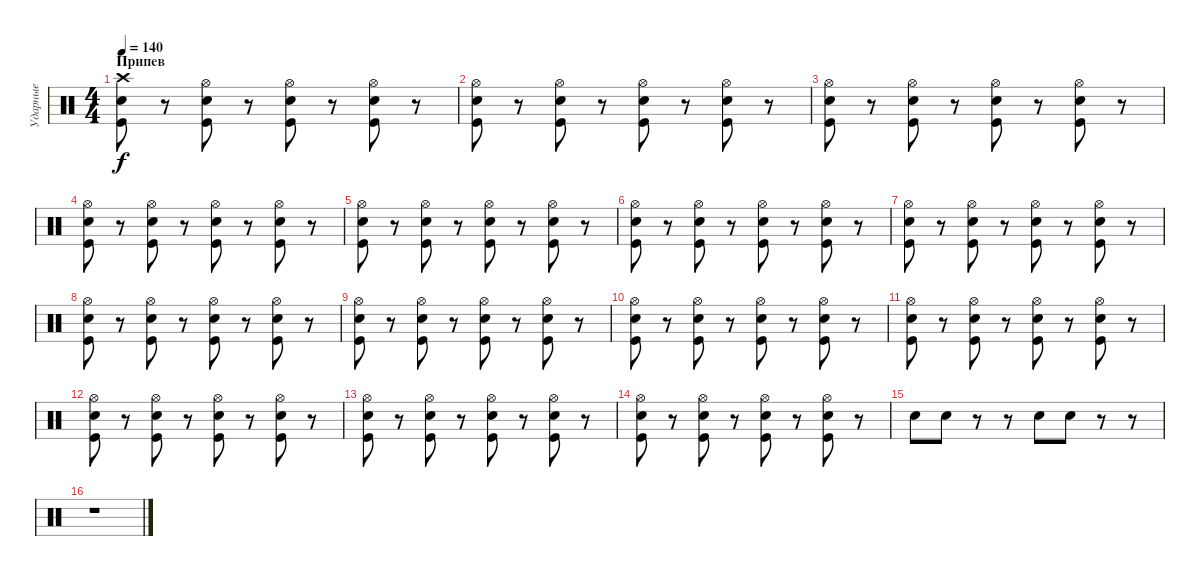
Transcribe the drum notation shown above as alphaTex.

\track ("Ударные" "Ударные") {instrument percussion}
\staff {score}
\articulation defaults
\ts (4 4)
\section ("" "Припев")
\tempo 140
\clef neutral
\ks c
("Crash high (hit)" "Snare (hit) 2" "Kick (hit)").8{dy f} r.8 ("Hi-Hat (open)" "Kick (hit)" "Snare (hit) 2").8 r.8 ("Hi-Hat (open)" "Kick (hit)" "Snare (hit) 2").8 r.8 ("Hi-Hat (open)" "Kick (hit)" "Snare (hit) 2").8 r.8 |
("Hi-Hat (open)" "Kick (hit)" "Snare (hit) 2").8 r.8 ("Hi-Hat (open)" "Kick (hit)" "Snare (hit) 2").8 r.8 ("Hi-Hat (open)" "Kick (hit)" "Snare (hit) 2").8 r.8 ("Hi-Hat (open)" "Kick (hit)" "Snare (hit) 2").8 r.8 |
("Hi-Hat (open)" "Snare (hit) 2" "Kick (hit)").8 r.8 ("Hi-Hat (open)" "Kick (hit)" "Snare (hit) 2").8 r.8 ("Hi-Hat (open)" "Kick (hit)" "Snare (hit) 2").8 r.8 ("Hi-Hat (open)" "Kick (hit)" "Snare (hit) 2").8 r.8 |
("Hi-Hat (open)" "Kick (hit)" "Snare (hit) 2").8 r.8 ("Hi-Hat (open)" "Kick (hit)" "Snare (hit) 2").8 r.8 ("Hi-Hat (open)" "Kick (hit)" "Snare (hit) 2").8 r.8 ("Hi-Hat (open)" "Kick (hit)" "Snare (hit) 2").8 r.8 |
("Hi-Hat (open)" "Snare (hit) 2" "Kick (hit)").8 r.8 ("Hi-Hat (open)" "Kick (hit)" "Snare (hit) 2").8 r.8 ("Hi-Hat (open)" "Kick (hit)" "Snare (hit) 2").8 r.8 ("Hi-Hat (open)" "Kick (hit)" "Snare (hit) 2").8 r.8 |
("Hi-Hat (open)" "Kick (hit)" "Snare (hit) 2").8 r.8 ("Hi-Hat (open)" "Kick (hit)" "Snare (hit) 2").8 r.8 ("Hi-Hat (open)" "Kick (hit)" "Snare (hit) 2").8 r.8 ("Hi-Hat (open)" "Kick (hit)" "Snare (hit) 2").8 r.8 |
("Hi-Hat (open)" "Snare (hit) 2" "Kick (hit)").8 r.8 ("Hi-Hat (open)" "Kick (hit)" "Snare (hit) 2").8 r.8 ("Hi-Hat (open)" "Kick (hit)" "Snare (hit) 2").8 r.8 ("Hi-Hat (open)" "Kick (hit)" "Snare (hit) 2").8 r.8 |
("Hi-Hat (open)" "Kick (hit)" "Snare (hit) 2").8 r.8 ("Hi-Hat (open)" "Kick (hit)" "Snare (hit) 2").8 r.8 ("Hi-Hat (open)" "Kick (hit)" "Snare (hit) 2").8 r.8 ("Hi-Hat (open)" "Kick (hit)" "Snare (hit) 2").8 r.8 |
("Hi-Hat (open)" "Snare (hit) 2" "Kick (hit)").8 r.8 ("Hi-Hat (open)" "Kick (hit)" "Snare (hit) 2").8 r.8 ("Hi-Hat (open)" "Kick (hit)" "Snare (hit) 2").8 r.8 ("Hi-Hat (open)" "Kick (hit)" "Snare (hit) 2").8 r.8 |
("Hi-Hat (open)" "Kick (hit)" "Snare (hit) 2").8 r.8 ("Hi-Hat (open)" "Kick (hit)" "Snare (hit) 2").8 r.8 ("Hi-Hat (open)" "Kick (hit)" "Snare (hit) 2").8 r.8 ("Hi-Hat (open)" "Kick (hit)" "Snare (hit) 2").8 r.8 |
("Hi-Hat (open)" "Snare (hit) 2" "Kick (hit)").8 r.8 ("Hi-Hat (open)" "Kick (hit)" "Snare (hit) 2").8 r.8 ("Hi-Hat (open)" "Kick (hit)" "Snare (hit) 2").8 r.8 ("Hi-Hat (open)" "Kick (hit)" "Snare (hit) 2").8 r.8 |
("Hi-Hat (open)" "Kick (hit)" "Snare (hit) 2").8 r.8 ("Hi-Hat (open)" "Kick (hit)" "Snare (hit) 2").8 r.8 ("Hi-Hat (open)" "Kick (hit)" "Snare (hit) 2").8 r.8 ("Hi-Hat (open)" "Kick (hit)" "Snare (hit) 2").8 r.8 |
("Hi-Hat (open)" "Snare (hit) 2" "Kick (hit)").8 r.8 ("Hi-Hat (open)" "Kick (hit)" "Snare (hit) 2").8 r.8 ("Hi-Hat (open)" "Kick (hit)" "Snare (hit) 2").8 r.8 ("Hi-Hat (open)" "Kick (hit)" "Snare (hit) 2").8 r.8 |
("Hi-Hat (open)" "Kick (hit)" "Snare (hit) 2").8 r.8 ("Hi-Hat (open)" "Kick (hit)" "Snare (hit) 2").8 r.8 ("Hi-Hat (open)" "Kick (hit)" "Snare (hit) 2").8 r.8 ("Hi-Hat (open)" "Kick (hit)" "Snare (hit) 2").8 r.8 |
"Snare (hit) 2".8 "Snare (hit) 2".8 r.8 r.8 "Snare (hit) 2".8 "Snare (hit) 2".8 r.8 r.8 |
r.1
